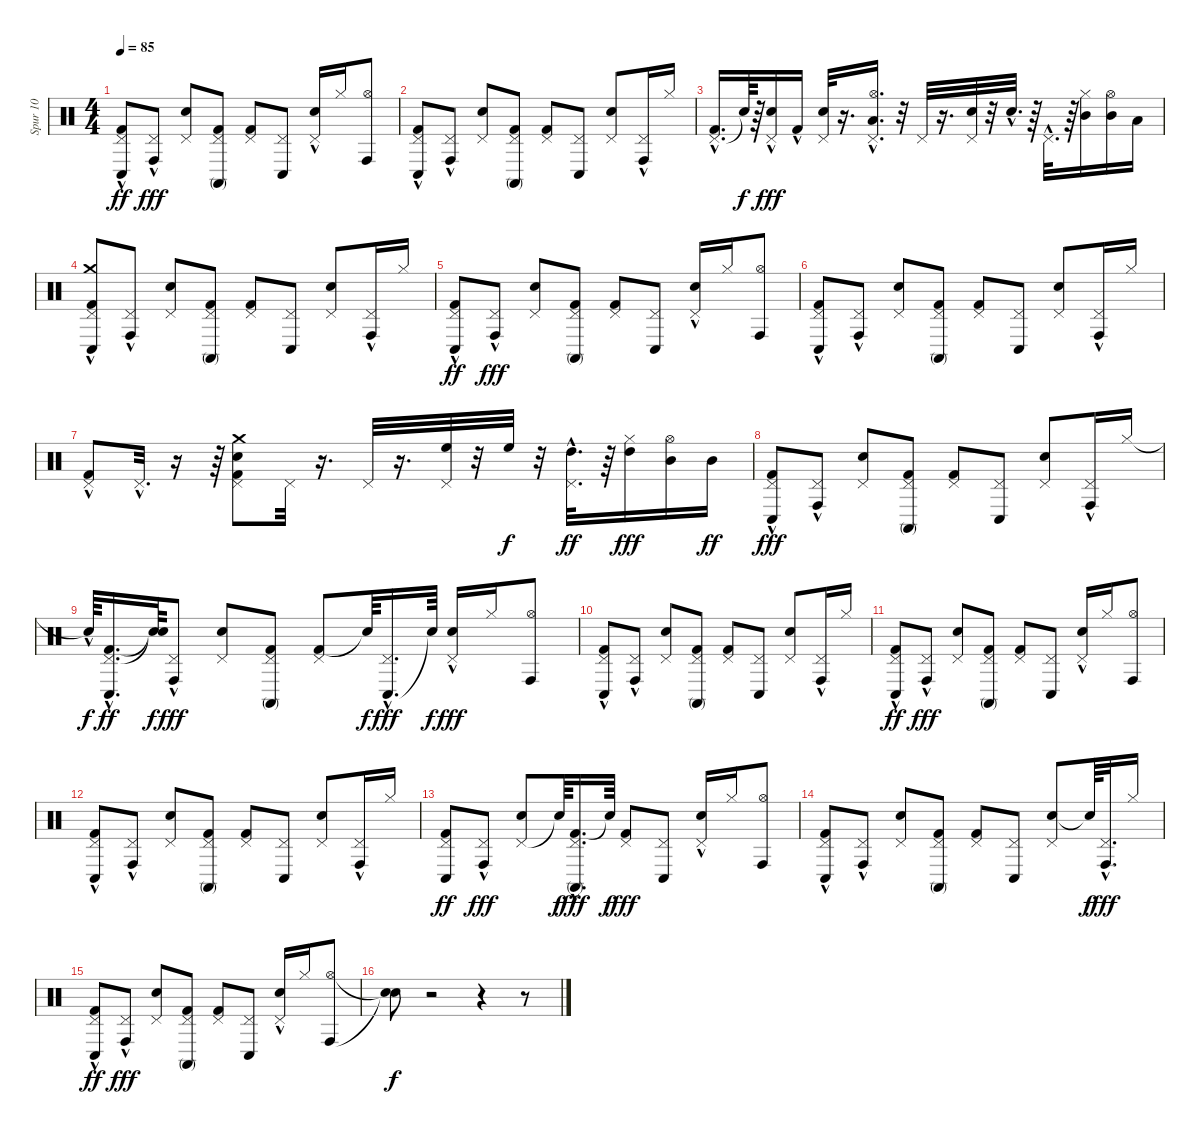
\track ("Spur 10" "Spur 10") {instrument percussion}
\staff {score}
\articulation defaults
\ts (4 4)
\tempo 85
\clef neutral
\ks c
("Pedal Hi-Hat (hit)"{hac} "Kick (hit) 2" "Conga low (hit)").8{dy ff} ("Conga high (hit)" "Pedal Hi-Hat (hit)"{hac}).8{dy fff} ("Pedal Hi-Hat (hit)" "Snare (hit) 2").8 ("Kick (hit) 2" "Conga high (mute)" "Pedal Hi-Hat (hit)").8 ("Kick (hit) 2" "Pedal Hi-Hat (hit)").8 ("Conga low (hit)" "Pedal Hi-Hat (hit)").8 ("Snare (hit) 2" "Pedal Hi-Hat (hit)"{hac}).16 "Hi-Hat (closed)".16 ("Conga high (hit)" "Hi-Hat (open)").8 |
("Kick (hit) 2" "Conga low (hit)" "Pedal Hi-Hat (hit)"{hac}).8 ("Conga high (hit)" "Pedal Hi-Hat (hit)"{hac}).8 ("Snare (hit) 2" "Pedal Hi-Hat (hit)").8 ("Kick (hit) 2" "Conga high (mute)" "Pedal Hi-Hat (hit)").8 ("Kick (hit) 2" "Pedal Hi-Hat (hit)").8 ("Conga low (hit)" "Pedal Hi-Hat (hit)").8 ("Snare (hit) 2" "Pedal Hi-Hat (hit)").8 ("Conga high (hit)" "Pedal Hi-Hat (hit)"{hac}).16 "Hi-Hat (closed)".16 |
("Pedal Hi-Hat (hit)"{hac} "Kick (hit) 2"{hac}).16{d} "Snare (hit)"{t}.64{dy f} r.64 ("Snare (hit) 2" "Pedal Hi-Hat (hit)"{hac}).16{dy fff} "Kick (hit) 2"{hac}.16 ("Pedal Hi-Hat (hit)" "Snare (hit) 2").32 r.16{d} ("Hi-Hat (open)"{hac} "Low Tom (hit)" "Pedal Hi-Hat (hit)").16{d} r.32 "Pedal Hi-Hat (hit)".32 r.16{d} ("Snare (hit) 2" "Pedal Hi-Hat (hit)").32 r.32 "Snare (hit) 2"{hac}.32{d} r.64 "Pedal Hi-Hat (hit)"{hac}.32{d} r.64 ("Mid Tom (hit)" "Hi-Hat (closed)").16 ("Mid Tom (hit)" "Hi-Hat (open)").16 "Low Tom (hit)".16 |
("Crash medium (hit)"{hac} "Kick (hit) 2" "Conga low (hit)" "Pedal Hi-Hat (hit)"{hac}).8 ("Conga high (hit)" "Pedal Hi-Hat (hit)"{hac}).8 ("Snare (hit) 2" "Pedal Hi-Hat (hit)").8 ("Kick (hit) 2" "Conga high (mute)" "Pedal Hi-Hat (hit)").8 ("Kick (hit) 2" "Pedal Hi-Hat (hit)").8 ("Conga low (hit)" "Pedal Hi-Hat (hit)").8 ("Snare (hit) 2" "Pedal Hi-Hat (hit)").8 ("Conga high (hit)" "Pedal Hi-Hat (hit)"{hac}).16 "Hi-Hat (closed)".16 |
("Pedal Hi-Hat (hit)"{hac} "Kick (hit) 2" "Conga low (hit)").8{dy ff} ("Conga high (hit)" "Pedal Hi-Hat (hit)"{hac}).8{dy fff} ("Pedal Hi-Hat (hit)" "Snare (hit) 2").8 ("Kick (hit) 2" "Conga high (mute)" "Pedal Hi-Hat (hit)").8 ("Kick (hit) 2" "Pedal Hi-Hat (hit)").8 ("Conga low (hit)" "Pedal Hi-Hat (hit)").8 ("Snare (hit) 2" "Pedal Hi-Hat (hit)"{hac}).16 "Hi-Hat (closed)".16 ("Conga high (hit)" "Hi-Hat (open)").8 |
("Kick (hit) 2" "Conga low (hit)" "Pedal Hi-Hat (hit)"{hac}).8 ("Conga high (hit)" "Pedal Hi-Hat (hit)"{hac}).8 ("Snare (hit) 2" "Pedal Hi-Hat (hit)").8 ("Kick (hit) 2" "Conga high (mute)" "Pedal Hi-Hat (hit)").8 ("Kick (hit) 2" "Pedal Hi-Hat (hit)").8 ("Conga low (hit)" "Pedal Hi-Hat (hit)").8 ("Snare (hit) 2" "Pedal Hi-Hat (hit)").8 ("Conga high (hit)" "Pedal Hi-Hat (hit)"{hac}).16 "Hi-Hat (closed)".16 |
("Pedal Hi-Hat (hit)"{hac} "Kick (hit) 2").8 "Pedal Hi-Hat (hit)"{hac}.32{d} r.16 r.64 ("Kick (hit) 2" "Snare (hit) 2" "Pedal Hi-Hat (hit)" "Crash medium (hit)").8 "Pedal Hi-Hat (hit)".32 r.16{d} "Pedal Hi-Hat (hit)".32 r.16{d} ("High Floor Tom (hit)" "Pedal Hi-Hat (hit)").32 r.32 "High Floor Tom (hit)".32{dy f} r.32 ("Pedal Hi-Hat (hit)"{hac} "High Tom (hit)").32{d dy ff} r.64 ("High Tom (hit)" "Hi-Hat (closed)").16{dy fff} ("Mid Tom (hit)" "Hi-Hat (open)").16 "Mid Tom (hit)".16{dy ff} |
("Kick (hit) 2" "Conga low (hit)" "Pedal Hi-Hat (hit)"{hac}).8{dy fff} ("Conga high (hit)" "Pedal Hi-Hat (hit)"{hac}).8 ("Snare (hit) 2" "Pedal Hi-Hat (hit)").8 ("Kick (hit) 2" "Conga high (mute)" "Pedal Hi-Hat (hit)").8 ("Kick (hit) 2" "Pedal Hi-Hat (hit)").8 ("Conga low (hit)" "Pedal Hi-Hat (hit)").8 ("Snare (hit) 2" "Pedal Hi-Hat (hit)").8 ("Conga high (hit)" "Pedal Hi-Hat (hit)"{hac}).16 "Hi-Hat (closed)".16 |
"Snare (hit)"{hac t}.64{dy f} ("Pedal Hi-Hat (hit)" "Kick (hit) 2"{hac} "Conga low (hit)"{hac}).16{d dy ff} ("Snare (hit)"{t} "Snare (hit)"{t}).64{dy f} ("Conga high (hit)" "Pedal Hi-Hat (hit)"{hac}).8{dy fff} ("Pedal Hi-Hat (hit)" "Snare (hit) 2").8 ("Kick (hit) 2" "Conga high (mute)" "Pedal Hi-Hat (hit)").8 ("Kick (hit) 2" "Pedal Hi-Hat (hit)").8 "Snare (hit)"{t}.64{dy f} ("Conga low (hit)"{hac} "Pedal Hi-Hat (hit)").16{d dy fff} "Snare (hit)"{t}.64{dy f} ("Snare (hit) 2" "Pedal Hi-Hat (hit)"{hac}).16{dy fff} "Hi-Hat (closed)".16 ("Conga high (hit)" "Hi-Hat (open)").8 |
("Kick (hit) 2" "Conga low (hit)" "Pedal Hi-Hat (hit)"{hac}).8 ("Conga high (hit)" "Pedal Hi-Hat (hit)"{hac}).8 ("Snare (hit) 2" "Pedal Hi-Hat (hit)").8 ("Kick (hit) 2" "Conga high (mute)" "Pedal Hi-Hat (hit)").8 ("Kick (hit) 2" "Pedal Hi-Hat (hit)").8 ("Conga low (hit)" "Pedal Hi-Hat (hit)").8 ("Snare (hit) 2" "Pedal Hi-Hat (hit)").8 ("Conga high (hit)" "Pedal Hi-Hat (hit)"{hac}).16 "Hi-Hat (closed)".16 |
("Pedal Hi-Hat (hit)"{hac} "Kick (hit) 2" "Conga low (hit)").8{dy ff} ("Conga high (hit)" "Pedal Hi-Hat (hit)"{hac}).8{dy fff} ("Pedal Hi-Hat (hit)" "Snare (hit) 2").8 ("Kick (hit) 2" "Conga high (mute)" "Pedal Hi-Hat (hit)").8 ("Kick (hit) 2" "Pedal Hi-Hat (hit)").8 ("Conga low (hit)" "Pedal Hi-Hat (hit)").8 ("Snare (hit) 2" "Pedal Hi-Hat (hit)"{hac}).16 "Hi-Hat (closed)".16 ("Conga high (hit)" "Hi-Hat (open)").8 |
("Kick (hit) 2" "Conga low (hit)" "Pedal Hi-Hat (hit)"{hac}).8 ("Conga high (hit)" "Pedal Hi-Hat (hit)"{hac}).8 ("Snare (hit) 2" "Pedal Hi-Hat (hit)").8 ("Kick (hit) 2" "Conga high (mute)" "Pedal Hi-Hat (hit)").8 ("Kick (hit) 2" "Pedal Hi-Hat (hit)").8 ("Conga low (hit)" "Pedal Hi-Hat (hit)").8 ("Snare (hit) 2" "Pedal Hi-Hat (hit)").8 ("Conga high (hit)" "Pedal Hi-Hat (hit)"{hac}).16 "Hi-Hat (closed)".16 |
("Pedal Hi-Hat (hit)" "Kick (hit) 2" "Conga low (hit)").8{dy ff} ("Conga high (hit)" "Pedal Hi-Hat (hit)"{hac}).8{dy fff} ("Pedal Hi-Hat (hit)" "Snare (hit) 2").8 "Snare (hit)"{t}.64{dy f} ("Kick (hit) 2" "Conga high (mute)"{hac} "Pedal Hi-Hat (hit)").16{d dy fff} "Snare (hit)"{t}.64{dy f} ("Kick (hit) 2" "Pedal Hi-Hat (hit)").8{dy fff} ("Conga low (hit)" "Pedal Hi-Hat (hit)").8 ("Snare (hit) 2" "Pedal Hi-Hat (hit)"{hac}).16 "Hi-Hat (closed)".16 ("Conga high (hit)" "Hi-Hat (open)").8 |
("Kick (hit) 2" "Conga low (hit)" "Pedal Hi-Hat (hit)"{hac}).8 ("Conga high (hit)" "Pedal Hi-Hat (hit)"{hac}).8 ("Snare (hit) 2" "Pedal Hi-Hat (hit)").8 ("Kick (hit) 2" "Conga high (mute)" "Pedal Hi-Hat (hit)").8 ("Kick (hit) 2" "Pedal Hi-Hat (hit)").8 ("Conga low (hit)" "Pedal Hi-Hat (hit)").8 ("Snare (hit) 2" "Pedal Hi-Hat (hit)").8 "Snare (hit)"{t}.64{dy f} ("Conga high (hit)"{hac} "Pedal Hi-Hat (hit)").32{d dy fff} "Hi-Hat (closed)".16 |
("Pedal Hi-Hat (hit)"{hac} "Kick (hit) 2" "Conga low (hit)").8{dy ff} ("Conga high (hit)" "Pedal Hi-Hat (hit)"{hac}).8{dy fff} ("Pedal Hi-Hat (hit)" "Snare (hit) 2").8 ("Kick (hit) 2" "Conga high (mute)" "Pedal Hi-Hat (hit)").8 ("Kick (hit) 2" "Pedal Hi-Hat (hit)").8 ("Conga low (hit)" "Pedal Hi-Hat (hit)").8 ("Snare (hit) 2" "Pedal Hi-Hat (hit)"{hac}).16 "Hi-Hat (closed)".16 ("Conga high (hit)" "Hi-Hat (open)").8 |
("Snare (hit)"{t} "Snare (hit)"{t}).8{dy f} r.2 r.4 r.8
